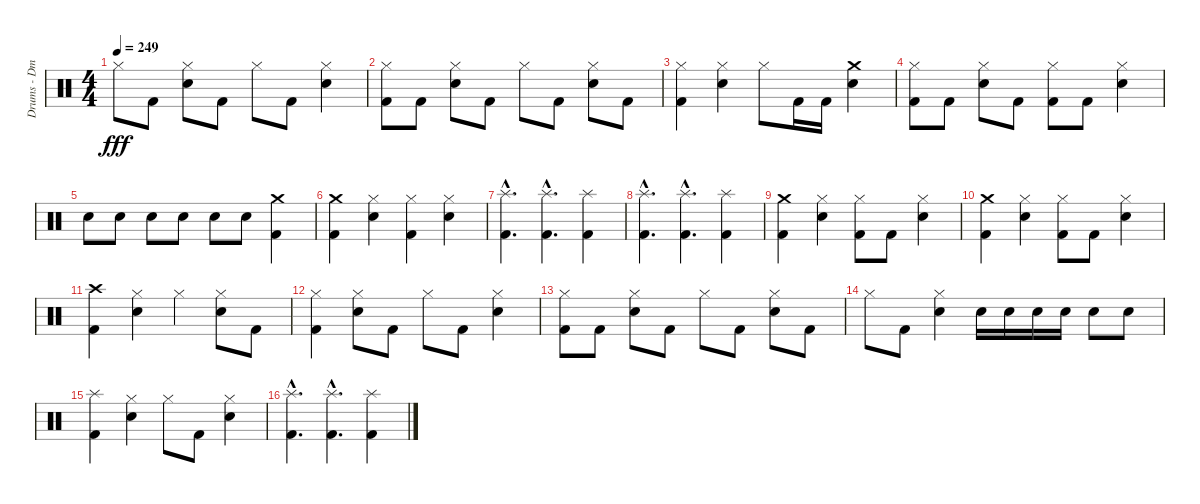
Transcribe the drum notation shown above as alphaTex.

\track ("Drums - Dmitriy Krivenkov" "Drums - Dm") {instrument percussion}
\staff {score}
\articulation defaults
\ts (4 4)
\tempo 249
\clef neutral
\ks c "Hi-Hat (closed)".8{dy fff} "Kick (hit) 2".8
("Electric Snare (hit)" "Hi-Hat (closed)").8 "Kick (hit) 2".8 "Hi-Hat (closed)".8 "Kick (hit) 2".8 ("Electric Snare (hit)" "Hi-Hat (closed)").4 |
("Kick (hit) 2" "Hi-Hat (closed)").8 "Kick (hit) 2".8 ("Electric Snare (hit)" "Hi-Hat (closed)").8 "Kick (hit) 2".8 "Hi-Hat (closed)".8 "Kick (hit) 2".8 ("Electric Snare (hit)" "Hi-Hat (closed)").8 "Kick (hit) 2".8 |
("Kick (hit) 2" "Hi-Hat (closed)").4 ("Electric Snare (hit)" "Hi-Hat (closed)").4 "Hi-Hat (closed)".8 "Kick (hit) 2".16 "Kick (hit) 2".16 ("Electric Snare (hit)" "Crash medium (hit)").4 |
("Kick (hit) 2" "Hi-Hat (closed)").8 "Kick (hit) 2".8 ("Electric Snare (hit)" "Hi-Hat (closed)").8 "Kick (hit) 2".8 ("Kick (hit) 2" "Hi-Hat (closed)").8 "Kick (hit) 2".8 ("Electric Snare (hit)" "Hi-Hat (closed)").4 |
"Electric Snare (hit)".8 "Electric Snare (hit)".8 "Electric Snare (hit)".8 "Electric Snare (hit)".8 "Electric Snare (hit)".8 "Electric Snare (hit)".8 ("Kick (hit) 2" "Crash medium (hit)").4 |
("Kick (hit) 2" "Crash medium (hit)").4 ("Electric Snare (hit)" "Hi-Hat (closed)").4 ("Kick (hit) 2" "Hi-Hat (closed)").4 ("Electric Snare (hit)" "Hi-Hat (closed)").4 |
("Kick (hit) 2"{hac} "Splash (hit)"{hac}).4{d} ("Kick (hit) 2"{hac} "Splash (hit)"{hac}).4{d} ("Kick (hit) 2" "Splash (hit)").4 |
("Kick (hit) 2"{hac} "Splash (hit)"{hac}).4{d} ("Kick (hit) 2"{hac} "Splash (hit)"{hac}).4{d} ("Kick (hit) 2" "Splash (hit)").4 |
("Kick (hit) 2" "Crash medium (hit)").4 ("Electric Snare (hit)" "Hi-Hat (closed)").4 ("Kick (hit) 2" "Hi-Hat (closed)").8 "Kick (hit) 2".8 ("Electric Snare (hit)" "Hi-Hat (closed)").4 |
("Kick (hit) 2" "Crash medium (hit)").4 ("Electric Snare (hit)" "Hi-Hat (closed)").4 ("Kick (hit) 2" "Hi-Hat (closed)").8 "Kick (hit) 2".8 ("Electric Snare (hit)" "Hi-Hat (closed)").4 |
("Kick (hit) 2" "Crash high (hit)").4 ("Electric Snare (hit)" "Hi-Hat (closed)").4 "Hi-Hat (closed)".4 ("Electric Snare (hit)" "Hi-Hat (closed)").8 "Kick (hit) 2".8 |
("Kick (hit) 2" "Hi-Hat (closed)").4 ("Electric Snare (hit)" "Hi-Hat (closed)").8 "Kick (hit) 2".8 "Hi-Hat (closed)".8 "Kick (hit) 2".8 ("Electric Snare (hit)" "Hi-Hat (closed)").4 |
("Kick (hit) 2" "Hi-Hat (closed)").8 "Kick (hit) 2".8 ("Electric Snare (hit)" "Hi-Hat (closed)").8 "Kick (hit) 2".8 "Hi-Hat (closed)".8 "Kick (hit) 2".8 ("Electric Snare (hit)" "Hi-Hat (closed)").8 "Kick (hit) 2".8 |
"Hi-Hat (closed)".8 "Kick (hit) 2".8 ("Electric Snare (hit)" "Hi-Hat (closed)").4 "Electric Snare (hit)".16 "Electric Snare (hit)".16 "Electric Snare (hit)".16 "Electric Snare (hit)".16 "Electric Snare (hit)".8 "Electric Snare (hit)".8 |
("Kick (hit) 2" "Splash (hit)").4 ("Electric Snare (hit)" "Hi-Hat (closed)").4 "Hi-Hat (closed)".8 "Kick (hit) 2".8 ("Electric Snare (hit)" "Hi-Hat (closed)").4 |
("Kick (hit) 2"{hac} "Splash (hit)"{hac}).4{d} ("Kick (hit) 2"{hac} "Splash (hit)"{hac}).4{d} ("Kick (hit) 2" "Splash (hit)").4
